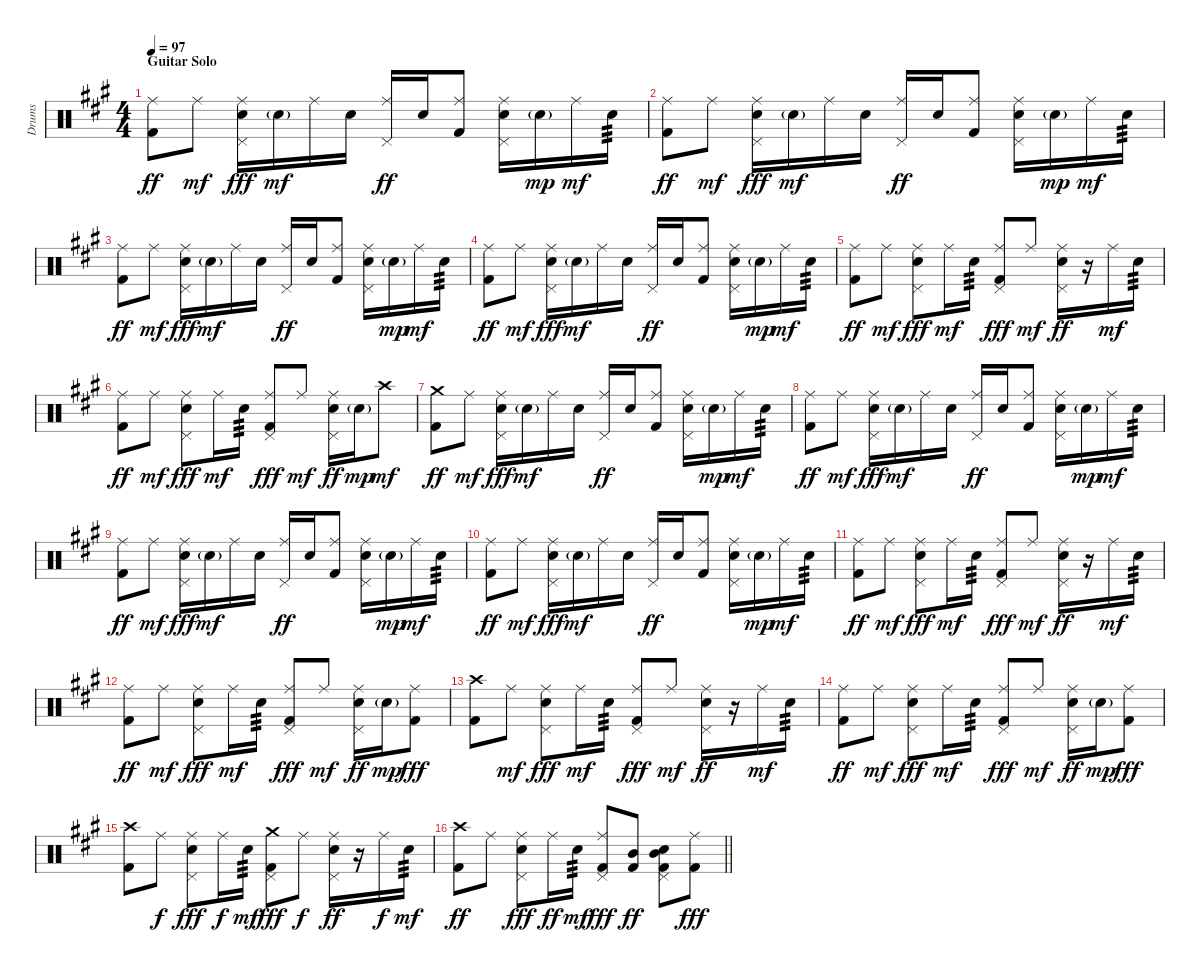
\track ("Drums" "Drums") {instrument percussion}
\staff {score}
\articulation defaults
\ts (4 4)
\section ("" "Guitar Solo")
\tempo 97
\clef neutral
\ks f#minor
("Ride (middle)" "Kick (hit) 2").8{dy ff} "Ride (middle)".8{dy mf} ("Ride (middle)" "Pedal Hi-Hat (hit)" "Electric Snare (hit)").16{dy fff} "Electric Snare (hit)"{g}.16{dy mf} "Ride (middle)".16 "Electric Snare (hit)".16 ("Ride (middle)" "Pedal Hi-Hat (hit)").16{dy ff} "Electric Snare (hit)".16 ("Ride (middle)" "Kick (hit) 2").8 ("Ride (middle)" "Pedal Hi-Hat (hit)" "Electric Snare (hit)").16 "Electric Snare (hit)"{g}.16{dy mp} "Ride (middle)".16{dy mf} "Electric Snare (hit)".16{tp 3} |
("Ride (middle)" "Kick (hit) 2").8{dy ff} "Ride (middle)".8{dy mf} ("Ride (middle)" "Pedal Hi-Hat (hit)" "Electric Snare (hit)").16{dy fff} "Electric Snare (hit)"{g}.16{dy mf} "Ride (middle)".16 "Electric Snare (hit)".16 ("Ride (middle)" "Pedal Hi-Hat (hit)").16{dy ff} "Electric Snare (hit)".16 ("Ride (middle)" "Kick (hit) 2").8 ("Ride (middle)" "Pedal Hi-Hat (hit)" "Electric Snare (hit)").16 "Electric Snare (hit)"{g}.16{dy mp} "Ride (middle)".16{dy mf} "Electric Snare (hit)".16{tp 3} |
("Ride (middle)" "Kick (hit) 2").8{dy ff} "Ride (middle)".8{dy mf} ("Ride (middle)" "Pedal Hi-Hat (hit)" "Electric Snare (hit)").16{dy fff} "Electric Snare (hit)"{g}.16{dy mf} "Ride (middle)".16 "Electric Snare (hit)".16 ("Ride (middle)" "Pedal Hi-Hat (hit)").16{dy ff} "Electric Snare (hit)".16 ("Ride (middle)" "Kick (hit) 2").8 ("Ride (middle)" "Pedal Hi-Hat (hit)" "Electric Snare (hit)").16 "Electric Snare (hit)"{g}.16{dy mp} "Ride (middle)".16{dy mf} "Electric Snare (hit)".16{tp 3} |
("Ride (middle)" "Kick (hit) 2").8{dy ff} "Ride (middle)".8{dy mf} ("Ride (middle)" "Pedal Hi-Hat (hit)" "Electric Snare (hit)").16{dy fff} "Electric Snare (hit)"{g}.16{dy mf} "Ride (middle)".16 "Electric Snare (hit)".16 ("Ride (middle)" "Pedal Hi-Hat (hit)").16{dy ff} "Electric Snare (hit)".16 ("Ride (middle)" "Kick (hit) 2").8 ("Ride (middle)" "Pedal Hi-Hat (hit)" "Electric Snare (hit)").16 "Electric Snare (hit)"{g}.16{dy mp} "Ride (middle)".16{dy mf} "Electric Snare (hit)".16{tp 3} |
("Ride (middle)" "Kick (hit) 2").8{dy ff} "Ride (middle)".8{dy mf} ("Ride (middle)" "Pedal Hi-Hat (hit)" "Electric Snare (hit)").8{dy fff} "Ride (middle)".16{dy mf} "Electric Snare (hit)".16{tp 3} ("Ride (middle)" "Pedal Hi-Hat (hit)" "Kick (hit) 2").8{dy fff} "Ride (middle)".8{dy mf} ("Ride (middle)" "Pedal Hi-Hat (hit)" "Electric Snare (hit)").16{dy ff} r.16 "Ride (middle)".16{dy mf} "Electric Snare (hit)".16{tp 3} |
("Ride (middle)" "Kick (hit) 2").8{dy ff} "Ride (middle)".8{dy mf} ("Ride (middle)" "Pedal Hi-Hat (hit)" "Electric Snare (hit)").8{dy fff} "Ride (middle)".16{dy mf} "Electric Snare (hit)".16{tp 3} ("Ride (middle)" "Pedal Hi-Hat (hit)" "Kick (hit) 2").8{dy fff} "Ride (middle)".8{dy mf} ("Ride (middle)" "Pedal Hi-Hat (hit)" "Electric Snare (hit)").16{dy ff} "Electric Snare (hit)"{g}.16{dy mp} "Crash high (hit)".8{dy mf} |
("Crash medium (hit)" "Kick (hit) 2").8{dy ff} "Ride (middle)".8{dy mf} ("Ride (middle)" "Pedal Hi-Hat (hit)" "Electric Snare (hit)").16{dy fff} "Electric Snare (hit)"{g}.16{dy mf} "Ride (middle)".16 "Electric Snare (hit)".16 ("Ride (middle)" "Pedal Hi-Hat (hit)").16{dy ff} "Electric Snare (hit)".16 ("Ride (middle)" "Kick (hit) 2").8 ("Ride (middle)" "Pedal Hi-Hat (hit)" "Electric Snare (hit)").16 "Electric Snare (hit)"{g}.16{dy mp} "Ride (middle)".16{dy mf} "Electric Snare (hit)".16{tp 3} |
("Ride (middle)" "Kick (hit) 2").8{dy ff} "Ride (middle)".8{dy mf} ("Ride (middle)" "Pedal Hi-Hat (hit)" "Electric Snare (hit)").16{dy fff} "Electric Snare (hit)"{g}.16{dy mf} "Ride (middle)".16 "Electric Snare (hit)".16 ("Ride (middle)" "Pedal Hi-Hat (hit)").16{dy ff} "Electric Snare (hit)".16 ("Ride (middle)" "Kick (hit) 2").8 ("Ride (middle)" "Pedal Hi-Hat (hit)" "Electric Snare (hit)").16 "Electric Snare (hit)"{g}.16{dy mp} "Ride (middle)".16{dy mf} "Electric Snare (hit)".16{tp 3} |
("Ride (middle)" "Kick (hit) 2").8{dy ff} "Ride (middle)".8{dy mf} ("Ride (middle)" "Pedal Hi-Hat (hit)" "Electric Snare (hit)").16{dy fff} "Electric Snare (hit)"{g}.16{dy mf} "Ride (middle)".16 "Electric Snare (hit)".16 ("Ride (middle)" "Pedal Hi-Hat (hit)").16{dy ff} "Electric Snare (hit)".16 ("Ride (middle)" "Kick (hit) 2").8 ("Ride (middle)" "Pedal Hi-Hat (hit)" "Electric Snare (hit)").16 "Electric Snare (hit)"{g}.16{dy mp} "Ride (middle)".16{dy mf} "Electric Snare (hit)".16{tp 3} |
("Ride (middle)" "Kick (hit) 2").8{dy ff} "Ride (middle)".8{dy mf} ("Ride (middle)" "Pedal Hi-Hat (hit)" "Electric Snare (hit)").16{dy fff} "Electric Snare (hit)"{g}.16{dy mf} "Ride (middle)".16 "Electric Snare (hit)".16 ("Ride (middle)" "Pedal Hi-Hat (hit)").16{dy ff} "Electric Snare (hit)".16 ("Ride (middle)" "Kick (hit) 2").8 ("Ride (middle)" "Pedal Hi-Hat (hit)" "Electric Snare (hit)").16 "Electric Snare (hit)"{g}.16{dy mp} "Ride (middle)".16{dy mf} "Electric Snare (hit)".16{tp 3} |
("Ride (middle)" "Kick (hit) 2").8{dy ff} "Ride (middle)".8{dy mf} ("Ride (middle)" "Pedal Hi-Hat (hit)" "Electric Snare (hit)").8{dy fff} "Ride (middle)".16{dy mf} "Electric Snare (hit)".16{tp 3} ("Ride (middle)" "Pedal Hi-Hat (hit)" "Kick (hit) 2").8{dy fff} "Ride (middle)".8{dy mf} ("Ride (middle)" "Pedal Hi-Hat (hit)" "Electric Snare (hit)").16{dy ff} r.16 "Ride (middle)".16{dy mf} "Electric Snare (hit)".16{tp 3} |
("Ride (middle)" "Kick (hit) 2").8{dy ff} "Ride (middle)".8{dy mf} ("Ride (middle)" "Pedal Hi-Hat (hit)" "Electric Snare (hit)").8{dy fff} "Ride (middle)".16{dy mf} "Electric Snare (hit)".16{tp 3} ("Ride (middle)" "Pedal Hi-Hat (hit)" "Kick (hit) 2").8{dy fff} "Ride (middle)".8{dy mf} ("Ride (middle)" "Pedal Hi-Hat (hit)" "Electric Snare (hit)").16{dy ff} "Electric Snare (hit)"{g}.16{dy mp} ("Ride (middle)" "Kick (hit) 2").8{dy fff} |
("Crash high (hit)" "Kick (hit) 2").8 "Ride (middle)".8{dy mf} ("Ride (middle)" "Pedal Hi-Hat (hit)" "Electric Snare (hit)").8{dy fff} "Ride (middle)".16{dy mf} "Electric Snare (hit)".16{tp 3} ("Ride (middle)" "Pedal Hi-Hat (hit)" "Kick (hit) 2").8{dy fff} "Ride (middle)".8{dy mf} ("Ride (middle)" "Pedal Hi-Hat (hit)" "Electric Snare (hit)").16{dy ff} r.16 "Ride (middle)".16{dy mf} "Electric Snare (hit)".16{tp 3} |
("Ride (middle)" "Kick (hit) 2").8{dy ff} "Ride (middle)".8{dy mf} ("Ride (middle)" "Pedal Hi-Hat (hit)" "Electric Snare (hit)").8{dy fff} "Ride (middle)".16{dy mf} "Electric Snare (hit)".16{tp 3} ("Ride (middle)" "Pedal Hi-Hat (hit)" "Kick (hit) 2").8{dy fff} "Ride (middle)".8{dy mf} ("Ride (middle)" "Pedal Hi-Hat (hit)" "Electric Snare (hit)").16{dy ff} "Electric Snare (hit)"{g}.16{dy mp} ("Ride (middle)" "Kick (hit) 2").8{dy fff} |
("Crash high (hit)" "Kick (hit) 2").8 "Ride (middle)".8{dy f} ("Ride (middle)" "Pedal Hi-Hat (hit)" "Electric Snare (hit)").8{dy fff} "Ride (middle)".16{dy f} "Electric Snare (hit)".16{tp 3 dy mf} ("Crash medium (hit)" "Pedal Hi-Hat (hit)" "Kick (hit) 2").8{dy fff} "Ride (middle)".8{dy f} ("Ride (middle)" "Pedal Hi-Hat (hit)" "Electric Snare (hit)").16{dy ff} r.16 "Ride (middle)".16{dy f} "Electric Snare (hit)".16{tp 3 dy mf} |
\barLineRight lightlight
("Crash high (hit)" "Kick (hit) 2").8{dy ff} "Ride (middle)".8 ("Ride (middle)" "Pedal Hi-Hat (hit)" "Electric Snare (hit)").8{dy fff} "Ride (middle)".16{dy ff} "Electric Snare (hit)".16{tp 3 dy mf} ("Ride (middle)" "Pedal Hi-Hat (hit)" "Kick (hit) 2").8{dy fff} ("Mid Tom (hit)" "Kick (hit) 2").8{dy ff} ("Pedal Hi-Hat (hit)" "Mid Tom (hit)" "Electric Snare (hit)" "Kick (hit) 2").8 ("Ride (middle)" "Kick (hit) 2").8{dy fff}
